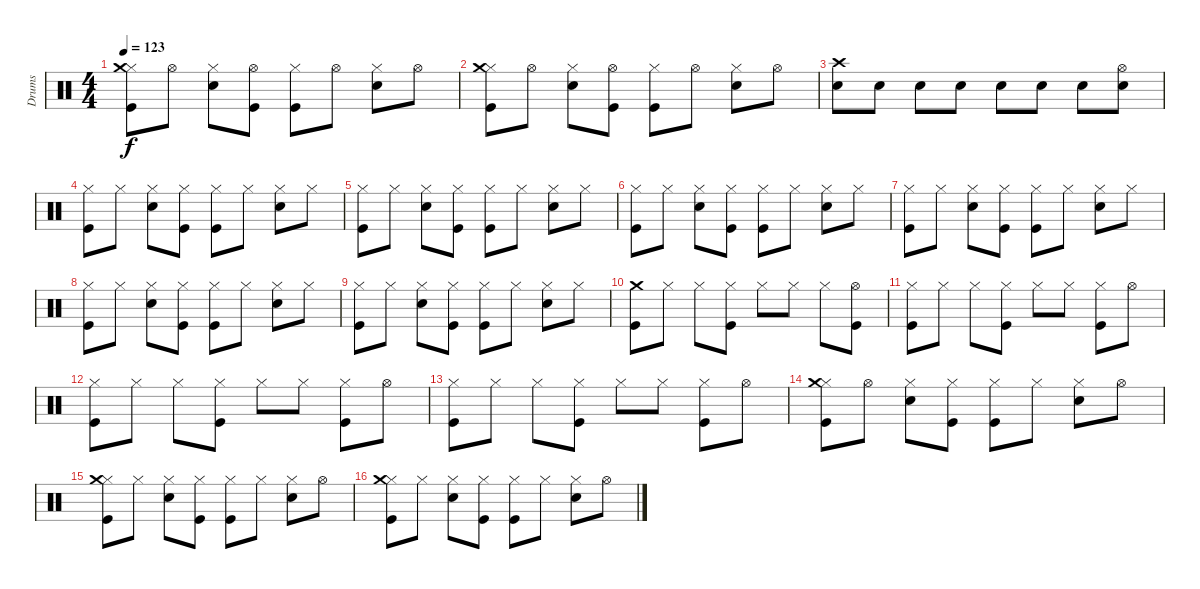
\track ("Drums" "Drums") {instrument percussion}
\staff {score}
\articulation defaults
\ts (4 4)
\tempo 123
\clef neutral
\ks c
("Hi-Hat (closed)" "Crash medium (hit)" "Kick (hit)").8{dy f} "Hi-Hat (open)".8 ("Hi-Hat (closed)" "Snare (hit) 2").8 ("Hi-Hat (open)" "Kick (hit)").8 ("Hi-Hat (closed)" "Kick (hit)").8 "Hi-Hat (open)".8 ("Hi-Hat (closed)" "Snare (hit) 2").8 "Hi-Hat (open)".8 |
("Hi-Hat (closed)" "Crash medium (hit)" "Kick (hit)").8 "Hi-Hat (open)".8 ("Hi-Hat (closed)" "Snare (hit) 2").8 ("Hi-Hat (open)" "Kick (hit)").8 ("Hi-Hat (closed)" "Kick (hit)").8 "Hi-Hat (open)".8 ("Hi-Hat (closed)" "Snare (hit) 2").8 "Hi-Hat (open)".8 |
("Crash high (hit)" "Snare (hit) 2").8 "Snare (hit) 2".8 "Snare (hit) 2".8 "Snare (hit) 2".8 "Snare (hit) 2".8 "Snare (hit) 2".8 "Snare (hit) 2".8 ("Hi-Hat (open)" "Snare (hit) 2").8 |
("Hi-Hat (closed)" "Kick (hit)").8 "Hi-Hat (closed)".8 ("Hi-Hat (closed)" "Snare (hit) 2").8 ("Hi-Hat (closed)" "Kick (hit)").8 ("Hi-Hat (closed)" "Kick (hit)").8 "Hi-Hat (closed)".8 ("Hi-Hat (closed)" "Snare (hit) 2").8 "Hi-Hat (closed)".8 |
("Hi-Hat (closed)" "Kick (hit)").8 "Hi-Hat (closed)".8 ("Hi-Hat (closed)" "Snare (hit) 2").8 ("Hi-Hat (closed)" "Kick (hit)").8 ("Hi-Hat (closed)" "Kick (hit)").8 "Hi-Hat (closed)".8 ("Hi-Hat (closed)" "Snare (hit) 2").8 "Hi-Hat (closed)".8 |
("Hi-Hat (closed)" "Kick (hit)").8 "Hi-Hat (closed)".8 ("Hi-Hat (closed)" "Snare (hit) 2").8 ("Hi-Hat (closed)" "Kick (hit)").8 ("Hi-Hat (closed)" "Kick (hit)").8 "Hi-Hat (closed)".8 ("Hi-Hat (closed)" "Snare (hit) 2").8 "Hi-Hat (closed)".8 |
("Hi-Hat (closed)" "Kick (hit)").8 "Hi-Hat (closed)".8 ("Hi-Hat (closed)" "Snare (hit) 2").8 ("Hi-Hat (closed)" "Kick (hit)").8 ("Hi-Hat (closed)" "Kick (hit)").8 "Hi-Hat (closed)".8 ("Hi-Hat (closed)" "Snare (hit) 2").8 "Hi-Hat (closed)".8 |
("Hi-Hat (closed)" "Kick (hit)").8 "Hi-Hat (closed)".8 ("Hi-Hat (closed)" "Snare (hit) 2").8 ("Hi-Hat (closed)" "Kick (hit)").8 ("Hi-Hat (closed)" "Kick (hit)").8 "Hi-Hat (closed)".8 ("Hi-Hat (closed)" "Snare (hit) 2").8 "Hi-Hat (closed)".8 |
("Hi-Hat (closed)" "Kick (hit)").8 "Hi-Hat (closed)".8 ("Hi-Hat (closed)" "Snare (hit) 2").8 ("Hi-Hat (closed)" "Kick (hit)").8 ("Hi-Hat (closed)" "Kick (hit)").8 "Hi-Hat (closed)".8 ("Hi-Hat (closed)" "Snare (hit) 2").8 "Hi-Hat (closed)".8 |
("Crash medium (hit)" "Kick (hit)").8 "Hi-Hat (closed)".8 "Hi-Hat (closed)".8 ("Hi-Hat (closed)" "Kick (hit)").8 "Hi-Hat (closed)".8 "Hi-Hat (closed)".8 "Hi-Hat (closed)".8 ("Hi-Hat (open)" "Kick (hit)").8 |
("Hi-Hat (closed)" "Kick (hit)").8 "Hi-Hat (closed)".8 "Hi-Hat (closed)".8 ("Hi-Hat (closed)" "Kick (hit)").8 "Hi-Hat (closed)".8 "Hi-Hat (closed)".8 ("Hi-Hat (closed)" "Kick (hit)").8 "Hi-Hat (open)".8 |
("Hi-Hat (closed)" "Kick (hit)").8 "Hi-Hat (closed)".8 "Hi-Hat (closed)".8 ("Hi-Hat (closed)" "Kick (hit)").8 "Hi-Hat (closed)".8 "Hi-Hat (closed)".8 ("Hi-Hat (closed)" "Kick (hit)").8 "Hi-Hat (open)".8 |
("Hi-Hat (closed)" "Kick (hit)").8 "Hi-Hat (closed)".8 "Hi-Hat (closed)".8 ("Hi-Hat (closed)" "Kick (hit)").8 "Hi-Hat (closed)".8 "Hi-Hat (closed)".8 ("Hi-Hat (closed)" "Kick (hit)").8 "Hi-Hat (open)".8 |
("Hi-Hat (closed)" "Crash medium (hit)" "Kick (hit)").8 "Hi-Hat (open)".8 ("Hi-Hat (closed)" "Snare (hit) 2").8 ("Hi-Hat (closed)" "Kick (hit)").8 ("Hi-Hat (closed)" "Kick (hit)").8 "Hi-Hat (closed)".8 ("Hi-Hat (closed)" "Snare (hit) 2").8 "Hi-Hat (open)".8 |
("Hi-Hat (closed)" "Crash medium (hit)" "Kick (hit)").8 "Hi-Hat (closed)".8 ("Hi-Hat (closed)" "Snare (hit) 2").8 ("Hi-Hat (closed)" "Kick (hit)").8 ("Hi-Hat (closed)" "Kick (hit)").8 "Hi-Hat (closed)".8 ("Hi-Hat (closed)" "Snare (hit) 2").8 "Hi-Hat (open)".8 |
("Hi-Hat (closed)" "Crash medium (hit)" "Kick (hit)").8 "Hi-Hat (closed)".8 ("Hi-Hat (closed)" "Snare (hit) 2").8 ("Hi-Hat (closed)" "Kick (hit)").8 ("Hi-Hat (closed)" "Kick (hit)").8 "Hi-Hat (closed)".8 ("Hi-Hat (closed)" "Snare (hit) 2").8 "Hi-Hat (open)".8
